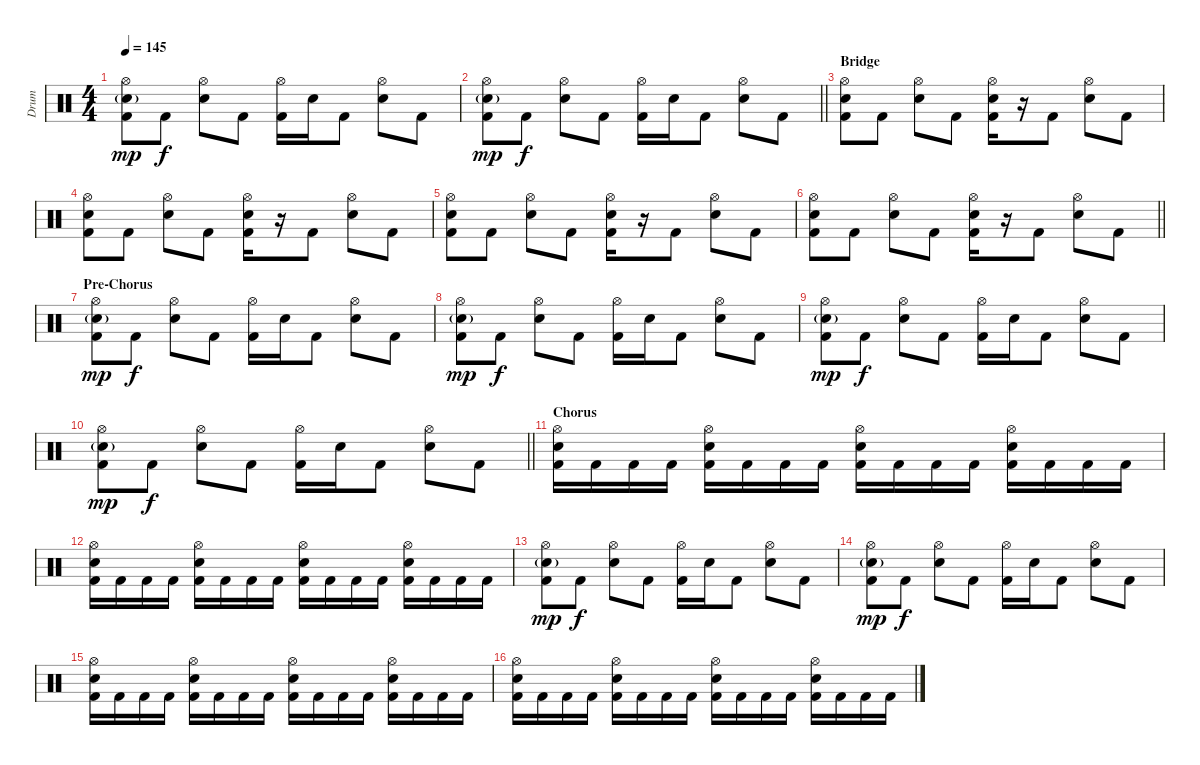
\track ("Drum" "Drum") {instrument percussion}
\staff {score}
\articulation defaults
\ts (4 4)
\tempo 145
\clef neutral
\ks c
("Hi-Hat (open)" "Electric Snare (hit)"{g} "Kick (hit) 2").8{dy mp} "Kick (hit) 2".8{dy f} ("Hi-Hat (open)" "Electric Snare (hit)").8 "Kick (hit) 2".8 ("Hi-Hat (open)" "Kick (hit) 2").16 "Electric Snare (hit)".16 "Kick (hit) 2".8 ("Hi-Hat (open)" "Electric Snare (hit)").8 "Kick (hit) 2".8 |
\barLineRight lightlight
("Hi-Hat (open)" "Electric Snare (hit)"{g} "Kick (hit) 2").8{dy mp} "Kick (hit) 2".8{dy f} ("Hi-Hat (open)" "Electric Snare (hit)").8 "Kick (hit) 2".8 ("Hi-Hat (open)" "Kick (hit) 2").16 "Electric Snare (hit)".16 "Kick (hit) 2".8 ("Hi-Hat (open)" "Electric Snare (hit)").8 "Kick (hit) 2".8 |
\section ("" "Bridge")
("Hi-Hat (open)" "Electric Snare (hit)" "Kick (hit) 2").8 "Kick (hit) 2".8 ("Hi-Hat (open)" "Electric Snare (hit)").8 "Kick (hit) 2".8 ("Hi-Hat (open)" "Electric Snare (hit)" "Kick (hit) 2").16 r.16 "Kick (hit) 2".8 ("Hi-Hat (open)" "Electric Snare (hit)").8 "Kick (hit) 2".8 |
("Hi-Hat (open)" "Electric Snare (hit)" "Kick (hit) 2").8 "Kick (hit) 2".8 ("Hi-Hat (open)" "Electric Snare (hit)").8 "Kick (hit) 2".8 ("Hi-Hat (open)" "Electric Snare (hit)" "Kick (hit) 2").16 r.16 "Kick (hit) 2".8 ("Hi-Hat (open)" "Electric Snare (hit)").8 "Kick (hit) 2".8 |
("Hi-Hat (open)" "Electric Snare (hit)" "Kick (hit) 2").8 "Kick (hit) 2".8 ("Hi-Hat (open)" "Electric Snare (hit)").8 "Kick (hit) 2".8 ("Hi-Hat (open)" "Electric Snare (hit)" "Kick (hit) 2").16 r.16 "Kick (hit) 2".8 ("Hi-Hat (open)" "Electric Snare (hit)").8 "Kick (hit) 2".8 |
\barLineRight lightlight
("Hi-Hat (open)" "Electric Snare (hit)" "Kick (hit) 2").8 "Kick (hit) 2".8 ("Hi-Hat (open)" "Electric Snare (hit)").8 "Kick (hit) 2".8 ("Hi-Hat (open)" "Electric Snare (hit)" "Kick (hit) 2").16 r.16 "Kick (hit) 2".8 ("Hi-Hat (open)" "Electric Snare (hit)").8 "Kick (hit) 2".8 |
\section ("" "Pre-Chorus")
("Hi-Hat (open)" "Electric Snare (hit)"{g} "Kick (hit) 2").8{dy mp} "Kick (hit) 2".8{dy f} ("Hi-Hat (open)" "Electric Snare (hit)").8 "Kick (hit) 2".8 ("Hi-Hat (open)" "Kick (hit) 2").16 "Electric Snare (hit)".16 "Kick (hit) 2".8 ("Hi-Hat (open)" "Electric Snare (hit)").8 "Kick (hit) 2".8 |
("Hi-Hat (open)" "Electric Snare (hit)"{g} "Kick (hit) 2").8{dy mp} "Kick (hit) 2".8{dy f} ("Hi-Hat (open)" "Electric Snare (hit)").8 "Kick (hit) 2".8 ("Hi-Hat (open)" "Kick (hit) 2").16 "Electric Snare (hit)".16 "Kick (hit) 2".8 ("Hi-Hat (open)" "Electric Snare (hit)").8 "Kick (hit) 2".8 |
("Hi-Hat (open)" "Electric Snare (hit)"{g} "Kick (hit) 2").8{dy mp} "Kick (hit) 2".8{dy f} ("Hi-Hat (open)" "Electric Snare (hit)").8 "Kick (hit) 2".8 ("Hi-Hat (open)" "Kick (hit) 2").16 "Electric Snare (hit)".16 "Kick (hit) 2".8 ("Hi-Hat (open)" "Electric Snare (hit)").8 "Kick (hit) 2".8 |
\barLineRight lightlight
("Hi-Hat (open)" "Electric Snare (hit)"{g} "Kick (hit) 2").8{dy mp} "Kick (hit) 2".8{dy f} ("Hi-Hat (open)" "Electric Snare (hit)").8 "Kick (hit) 2".8 ("Hi-Hat (open)" "Kick (hit) 2").16 "Electric Snare (hit)".16 "Kick (hit) 2".8 ("Hi-Hat (open)" "Electric Snare (hit)").8 "Kick (hit) 2".8 |
\section ("" "Chorus")
("Hi-Hat (open)" "Electric Snare (hit)" "Kick (hit) 2").16 "Kick (hit) 2".16 "Kick (hit) 2".16 "Kick (hit) 2".16 ("Hi-Hat (open)" "Electric Snare (hit)" "Kick (hit) 2").16 "Kick (hit) 2".16 "Kick (hit) 2".16 "Kick (hit) 2".16 ("Hi-Hat (open)" "Electric Snare (hit)" "Kick (hit) 2").16 "Kick (hit) 2".16 "Kick (hit) 2".16 "Kick (hit) 2".16 ("Hi-Hat (open)" "Electric Snare (hit)" "Kick (hit) 2").16 "Kick (hit) 2".16 "Kick (hit) 2".16 "Kick (hit) 2".16 |
("Hi-Hat (open)" "Electric Snare (hit)" "Kick (hit) 2").16 "Kick (hit) 2".16 "Kick (hit) 2".16 "Kick (hit) 2".16 ("Hi-Hat (open)" "Electric Snare (hit)" "Kick (hit) 2").16 "Kick (hit) 2".16 "Kick (hit) 2".16 "Kick (hit) 2".16 ("Hi-Hat (open)" "Electric Snare (hit)" "Kick (hit) 2").16 "Kick (hit) 2".16 "Kick (hit) 2".16 "Kick (hit) 2".16 ("Hi-Hat (open)" "Electric Snare (hit)" "Kick (hit) 2").16 "Kick (hit) 2".16 "Kick (hit) 2".16 "Kick (hit) 2".16 |
("Hi-Hat (open)" "Electric Snare (hit)"{g} "Kick (hit) 2").8{dy mp} "Kick (hit) 2".8{dy f} ("Hi-Hat (open)" "Electric Snare (hit)").8 "Kick (hit) 2".8 ("Hi-Hat (open)" "Kick (hit) 2").16 "Electric Snare (hit)".16 "Kick (hit) 2".8 ("Hi-Hat (open)" "Electric Snare (hit)").8 "Kick (hit) 2".8 |
("Hi-Hat (open)" "Electric Snare (hit)"{g} "Kick (hit) 2").8{dy mp} "Kick (hit) 2".8{dy f} ("Hi-Hat (open)" "Electric Snare (hit)").8 "Kick (hit) 2".8 ("Hi-Hat (open)" "Kick (hit) 2").16 "Electric Snare (hit)".16 "Kick (hit) 2".8 ("Hi-Hat (open)" "Electric Snare (hit)").8 "Kick (hit) 2".8 |
("Hi-Hat (open)" "Electric Snare (hit)" "Kick (hit) 2").16 "Kick (hit) 2".16 "Kick (hit) 2".16 "Kick (hit) 2".16 ("Hi-Hat (open)" "Electric Snare (hit)" "Kick (hit) 2").16 "Kick (hit) 2".16 "Kick (hit) 2".16 "Kick (hit) 2".16 ("Hi-Hat (open)" "Electric Snare (hit)" "Kick (hit) 2").16 "Kick (hit) 2".16 "Kick (hit) 2".16 "Kick (hit) 2".16 ("Hi-Hat (open)" "Electric Snare (hit)" "Kick (hit) 2").16 "Kick (hit) 2".16 "Kick (hit) 2".16 "Kick (hit) 2".16 |
("Hi-Hat (open)" "Electric Snare (hit)" "Kick (hit) 2").16 "Kick (hit) 2".16 "Kick (hit) 2".16 "Kick (hit) 2".16 ("Hi-Hat (open)" "Electric Snare (hit)" "Kick (hit) 2").16 "Kick (hit) 2".16 "Kick (hit) 2".16 "Kick (hit) 2".16 ("Hi-Hat (open)" "Electric Snare (hit)" "Kick (hit) 2").16 "Kick (hit) 2".16 "Kick (hit) 2".16 "Kick (hit) 2".16 ("Hi-Hat (open)" "Electric Snare (hit)" "Kick (hit) 2").16 "Kick (hit) 2".16 "Kick (hit) 2".16 "Kick (hit) 2".16
